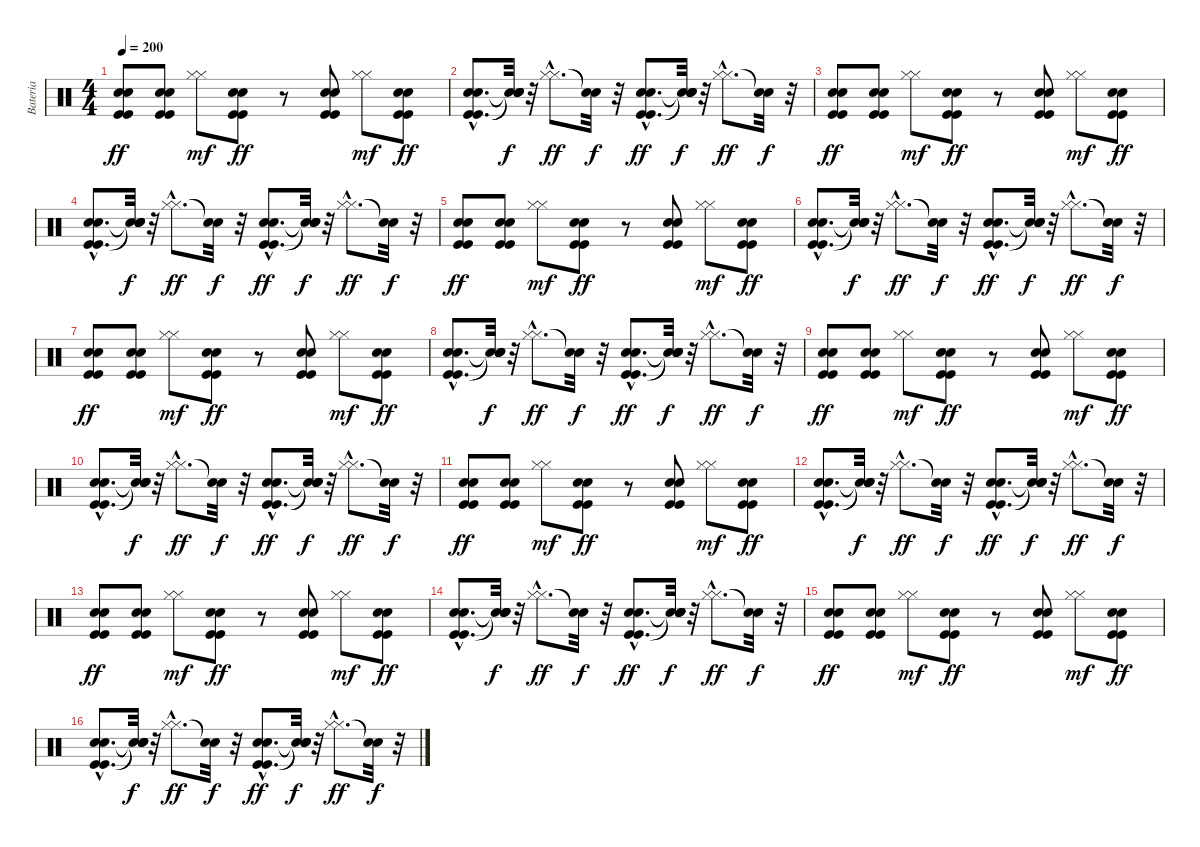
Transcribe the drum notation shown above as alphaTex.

\track ("Bateria" "Bateria") {instrument percussion}
\staff {score}
\articulation defaults
\ts (4 4)
\tempo 200
\clef neutral
\ks c
("Kick (hit)" "Snare (hit) 2" "Kick (hit)" "Snare (hit) 2").8{dy ff} ("Kick (hit)" "Snare (hit) 2" "Kick (hit)" "Snare (hit) 2").8 ("Hi-Hat (closed)" "Hi-Hat (closed)").8{dy mf} ("Kick (hit)" "Snare (hit) 2" "Kick (hit)" "Snare (hit) 2").8{dy ff} r.8 ("Kick (hit)" "Snare (hit) 2" "Kick (hit)" "Snare (hit) 2").8 ("Hi-Hat (closed)" "Hi-Hat (closed)").8{dy mf} ("Kick (hit)" "Snare (hit) 2" "Kick (hit)" "Snare (hit) 2").8{dy ff} |
("Kick (hit)"{hac} "Snare (hit) 2"{hac} "Kick (hit)"{hac} "Snare (hit) 2"{hac}).8{d} ("Snare (hit)"{t} "Snare (hit)"{t} "Snare (hit)"{t} "Snare (hit)"{t}).32{dy f} r.32 ("Hi-Hat (closed)"{hac} "Hi-Hat (closed)"{hac}).8{d dy ff} ("Snare (hit)"{t} "Snare (hit)"{t}).32{dy f} r.32 ("Kick (hit)"{hac} "Snare (hit) 2"{hac} "Kick (hit)"{hac} "Snare (hit) 2"{hac}).8{d dy ff} ("Snare (hit)"{t} "Snare (hit)"{t} "Snare (hit)"{t} "Snare (hit)"{t}).32{dy f} r.32 ("Hi-Hat (closed)"{hac} "Hi-Hat (closed)"{hac}).8{d dy ff} ("Snare (hit)"{t} "Snare (hit)"{t}).32{dy f} r.32 |
("Kick (hit)" "Snare (hit) 2" "Kick (hit)" "Snare (hit) 2").8{dy ff} ("Kick (hit)" "Snare (hit) 2" "Kick (hit)" "Snare (hit) 2").8 ("Hi-Hat (closed)" "Hi-Hat (closed)").8{dy mf} ("Kick (hit)" "Snare (hit) 2" "Kick (hit)" "Snare (hit) 2").8{dy ff} r.8 ("Kick (hit)" "Snare (hit) 2" "Kick (hit)" "Snare (hit) 2").8 ("Hi-Hat (closed)" "Hi-Hat (closed)").8{dy mf} ("Kick (hit)" "Snare (hit) 2" "Kick (hit)" "Snare (hit) 2").8{dy ff} |
("Kick (hit)"{hac} "Snare (hit) 2"{hac} "Kick (hit)"{hac} "Snare (hit) 2"{hac}).8{d} ("Snare (hit)"{t} "Snare (hit)"{t} "Snare (hit)"{t} "Snare (hit)"{t}).32{dy f} r.32 ("Hi-Hat (closed)"{hac} "Hi-Hat (closed)"{hac}).8{d dy ff} ("Snare (hit)"{t} "Snare (hit)"{t}).32{dy f} r.32 ("Kick (hit)"{hac} "Snare (hit) 2"{hac} "Kick (hit)"{hac} "Snare (hit) 2"{hac}).8{d dy ff} ("Snare (hit)"{t} "Snare (hit)"{t} "Snare (hit)"{t} "Snare (hit)"{t}).32{dy f} r.32 ("Hi-Hat (closed)"{hac} "Hi-Hat (closed)"{hac}).8{d dy ff} ("Snare (hit)"{t} "Snare (hit)"{t}).32{dy f} r.32 |
("Kick (hit)" "Snare (hit) 2" "Kick (hit)" "Snare (hit) 2").8{dy ff} ("Kick (hit)" "Snare (hit) 2" "Kick (hit)" "Snare (hit) 2").8 ("Hi-Hat (closed)" "Hi-Hat (closed)").8{dy mf} ("Kick (hit)" "Snare (hit) 2" "Kick (hit)" "Snare (hit) 2").8{dy ff} r.8 ("Kick (hit)" "Snare (hit) 2" "Kick (hit)" "Snare (hit) 2").8 ("Hi-Hat (closed)" "Hi-Hat (closed)").8{dy mf} ("Kick (hit)" "Snare (hit) 2" "Kick (hit)" "Snare (hit) 2").8{dy ff} |
("Kick (hit)"{hac} "Snare (hit) 2"{hac} "Kick (hit)"{hac} "Snare (hit) 2"{hac}).8{d} ("Snare (hit)"{t} "Snare (hit)"{t} "Snare (hit)"{t} "Snare (hit)"{t}).32{dy f} r.32 ("Hi-Hat (closed)"{hac} "Hi-Hat (closed)"{hac}).8{d dy ff} ("Snare (hit)"{t} "Snare (hit)"{t}).32{dy f} r.32 ("Kick (hit)"{hac} "Snare (hit) 2"{hac} "Kick (hit)"{hac} "Snare (hit) 2"{hac}).8{d dy ff} ("Snare (hit)"{t} "Snare (hit)"{t} "Snare (hit)"{t} "Snare (hit)"{t}).32{dy f} r.32 ("Hi-Hat (closed)"{hac} "Hi-Hat (closed)"{hac}).8{d dy ff} ("Snare (hit)"{t} "Snare (hit)"{t}).32{dy f} r.32 |
("Kick (hit)" "Snare (hit) 2" "Kick (hit)" "Snare (hit) 2").8{dy ff} ("Kick (hit)" "Snare (hit) 2" "Kick (hit)" "Snare (hit) 2").8 ("Hi-Hat (closed)" "Hi-Hat (closed)").8{dy mf} ("Kick (hit)" "Snare (hit) 2" "Kick (hit)" "Snare (hit) 2").8{dy ff} r.8 ("Kick (hit)" "Snare (hit) 2" "Kick (hit)" "Snare (hit) 2").8 ("Hi-Hat (closed)" "Hi-Hat (closed)").8{dy mf} ("Kick (hit)" "Snare (hit) 2" "Kick (hit)" "Snare (hit) 2").8{dy ff} |
("Kick (hit)"{hac} "Snare (hit) 2"{hac} "Kick (hit)"{hac} "Snare (hit) 2"{hac}).8{d} ("Snare (hit)"{t} "Snare (hit)"{t} "Snare (hit)"{t} "Snare (hit)"{t}).32{dy f} r.32 ("Hi-Hat (closed)"{hac} "Hi-Hat (closed)"{hac}).8{d dy ff} ("Snare (hit)"{t} "Snare (hit)"{t}).32{dy f} r.32 ("Kick (hit)"{hac} "Snare (hit) 2"{hac} "Kick (hit)"{hac} "Snare (hit) 2"{hac}).8{d dy ff} ("Snare (hit)"{t} "Snare (hit)"{t} "Snare (hit)"{t} "Snare (hit)"{t}).32{dy f} r.32 ("Hi-Hat (closed)"{hac} "Hi-Hat (closed)"{hac}).8{d dy ff} ("Snare (hit)"{t} "Snare (hit)"{t}).32{dy f} r.32 |
("Kick (hit)" "Snare (hit) 2" "Kick (hit)" "Snare (hit) 2").8{dy ff} ("Kick (hit)" "Snare (hit) 2" "Kick (hit)" "Snare (hit) 2").8 ("Hi-Hat (closed)" "Hi-Hat (closed)").8{dy mf} ("Kick (hit)" "Snare (hit) 2" "Kick (hit)" "Snare (hit) 2").8{dy ff} r.8 ("Kick (hit)" "Snare (hit) 2" "Kick (hit)" "Snare (hit) 2").8 ("Hi-Hat (closed)" "Hi-Hat (closed)").8{dy mf} ("Kick (hit)" "Snare (hit) 2" "Kick (hit)" "Snare (hit) 2").8{dy ff} |
("Kick (hit)"{hac} "Snare (hit) 2"{hac} "Kick (hit)"{hac} "Snare (hit) 2"{hac}).8{d} ("Snare (hit)"{t} "Snare (hit)"{t} "Snare (hit)"{t} "Snare (hit)"{t}).32{dy f} r.32 ("Hi-Hat (closed)"{hac} "Hi-Hat (closed)"{hac}).8{d dy ff} ("Snare (hit)"{t} "Snare (hit)"{t}).32{dy f} r.32 ("Kick (hit)"{hac} "Snare (hit) 2"{hac} "Kick (hit)"{hac} "Snare (hit) 2"{hac}).8{d dy ff} ("Snare (hit)"{t} "Snare (hit)"{t} "Snare (hit)"{t} "Snare (hit)"{t}).32{dy f} r.32 ("Hi-Hat (closed)"{hac} "Hi-Hat (closed)"{hac}).8{d dy ff} ("Snare (hit)"{t} "Snare (hit)"{t}).32{dy f} r.32 |
("Kick (hit)" "Snare (hit) 2" "Kick (hit)" "Snare (hit) 2").8{dy ff} ("Kick (hit)" "Snare (hit) 2" "Kick (hit)" "Snare (hit) 2").8 ("Hi-Hat (closed)" "Hi-Hat (closed)").8{dy mf} ("Kick (hit)" "Snare (hit) 2" "Kick (hit)" "Snare (hit) 2").8{dy ff} r.8 ("Kick (hit)" "Snare (hit) 2" "Kick (hit)" "Snare (hit) 2").8 ("Hi-Hat (closed)" "Hi-Hat (closed)").8{dy mf} ("Kick (hit)" "Snare (hit) 2" "Kick (hit)" "Snare (hit) 2").8{dy ff} |
("Kick (hit)"{hac} "Snare (hit) 2"{hac} "Kick (hit)"{hac} "Snare (hit) 2"{hac}).8{d} ("Snare (hit)"{t} "Snare (hit)"{t} "Snare (hit)"{t} "Snare (hit)"{t}).32{dy f} r.32 ("Hi-Hat (closed)"{hac} "Hi-Hat (closed)"{hac}).8{d dy ff} ("Snare (hit)"{t} "Snare (hit)"{t}).32{dy f} r.32 ("Kick (hit)"{hac} "Snare (hit) 2"{hac} "Kick (hit)"{hac} "Snare (hit) 2"{hac}).8{d dy ff} ("Snare (hit)"{t} "Snare (hit)"{t} "Snare (hit)"{t} "Snare (hit)"{t}).32{dy f} r.32 ("Hi-Hat (closed)"{hac} "Hi-Hat (closed)"{hac}).8{d dy ff} ("Snare (hit)"{t} "Snare (hit)"{t}).32{dy f} r.32 |
("Kick (hit)" "Snare (hit) 2" "Kick (hit)" "Snare (hit) 2").8{dy ff} ("Kick (hit)" "Snare (hit) 2" "Kick (hit)" "Snare (hit) 2").8 ("Hi-Hat (closed)" "Hi-Hat (closed)").8{dy mf} ("Kick (hit)" "Snare (hit) 2" "Kick (hit)" "Snare (hit) 2").8{dy ff} r.8 ("Kick (hit)" "Snare (hit) 2" "Kick (hit)" "Snare (hit) 2").8 ("Hi-Hat (closed)" "Hi-Hat (closed)").8{dy mf} ("Kick (hit)" "Snare (hit) 2" "Kick (hit)" "Snare (hit) 2").8{dy ff} |
("Kick (hit)"{hac} "Snare (hit) 2"{hac} "Kick (hit)"{hac} "Snare (hit) 2"{hac}).8{d} ("Snare (hit)"{t} "Snare (hit)"{t} "Snare (hit)"{t} "Snare (hit)"{t}).32{dy f} r.32 ("Hi-Hat (closed)"{hac} "Hi-Hat (closed)"{hac}).8{d dy ff} ("Snare (hit)"{t} "Snare (hit)"{t}).32{dy f} r.32 ("Kick (hit)"{hac} "Snare (hit) 2"{hac} "Kick (hit)"{hac} "Snare (hit) 2"{hac}).8{d dy ff} ("Snare (hit)"{t} "Snare (hit)"{t} "Snare (hit)"{t} "Snare (hit)"{t}).32{dy f} r.32 ("Hi-Hat (closed)"{hac} "Hi-Hat (closed)"{hac}).8{d dy ff} ("Snare (hit)"{t} "Snare (hit)"{t}).32{dy f} r.32 |
("Kick (hit)" "Snare (hit) 2" "Kick (hit)" "Snare (hit) 2").8{dy ff} ("Kick (hit)" "Snare (hit) 2" "Kick (hit)" "Snare (hit) 2").8 ("Hi-Hat (closed)" "Hi-Hat (closed)").8{dy mf} ("Kick (hit)" "Snare (hit) 2" "Kick (hit)" "Snare (hit) 2").8{dy ff} r.8 ("Kick (hit)" "Snare (hit) 2" "Kick (hit)" "Snare (hit) 2").8 ("Hi-Hat (closed)" "Hi-Hat (closed)").8{dy mf} ("Kick (hit)" "Snare (hit) 2" "Kick (hit)" "Snare (hit) 2").8{dy ff} |
("Kick (hit)"{hac} "Snare (hit) 2"{hac} "Kick (hit)"{hac} "Snare (hit) 2"{hac}).8{d} ("Snare (hit)"{t} "Snare (hit)"{t} "Snare (hit)"{t} "Snare (hit)"{t}).32{dy f} r.32 ("Hi-Hat (closed)"{hac} "Hi-Hat (closed)"{hac}).8{d dy ff} ("Snare (hit)"{t} "Snare (hit)"{t}).32{dy f} r.32 ("Kick (hit)"{hac} "Snare (hit) 2"{hac} "Kick (hit)"{hac} "Snare (hit) 2"{hac}).8{d dy ff} ("Snare (hit)"{t} "Snare (hit)"{t} "Snare (hit)"{t} "Snare (hit)"{t}).32{dy f} r.32 ("Hi-Hat (closed)"{hac} "Hi-Hat (closed)"{hac}).8{d dy ff} ("Snare (hit)"{t} "Snare (hit)"{t}).32{dy f} r.32
